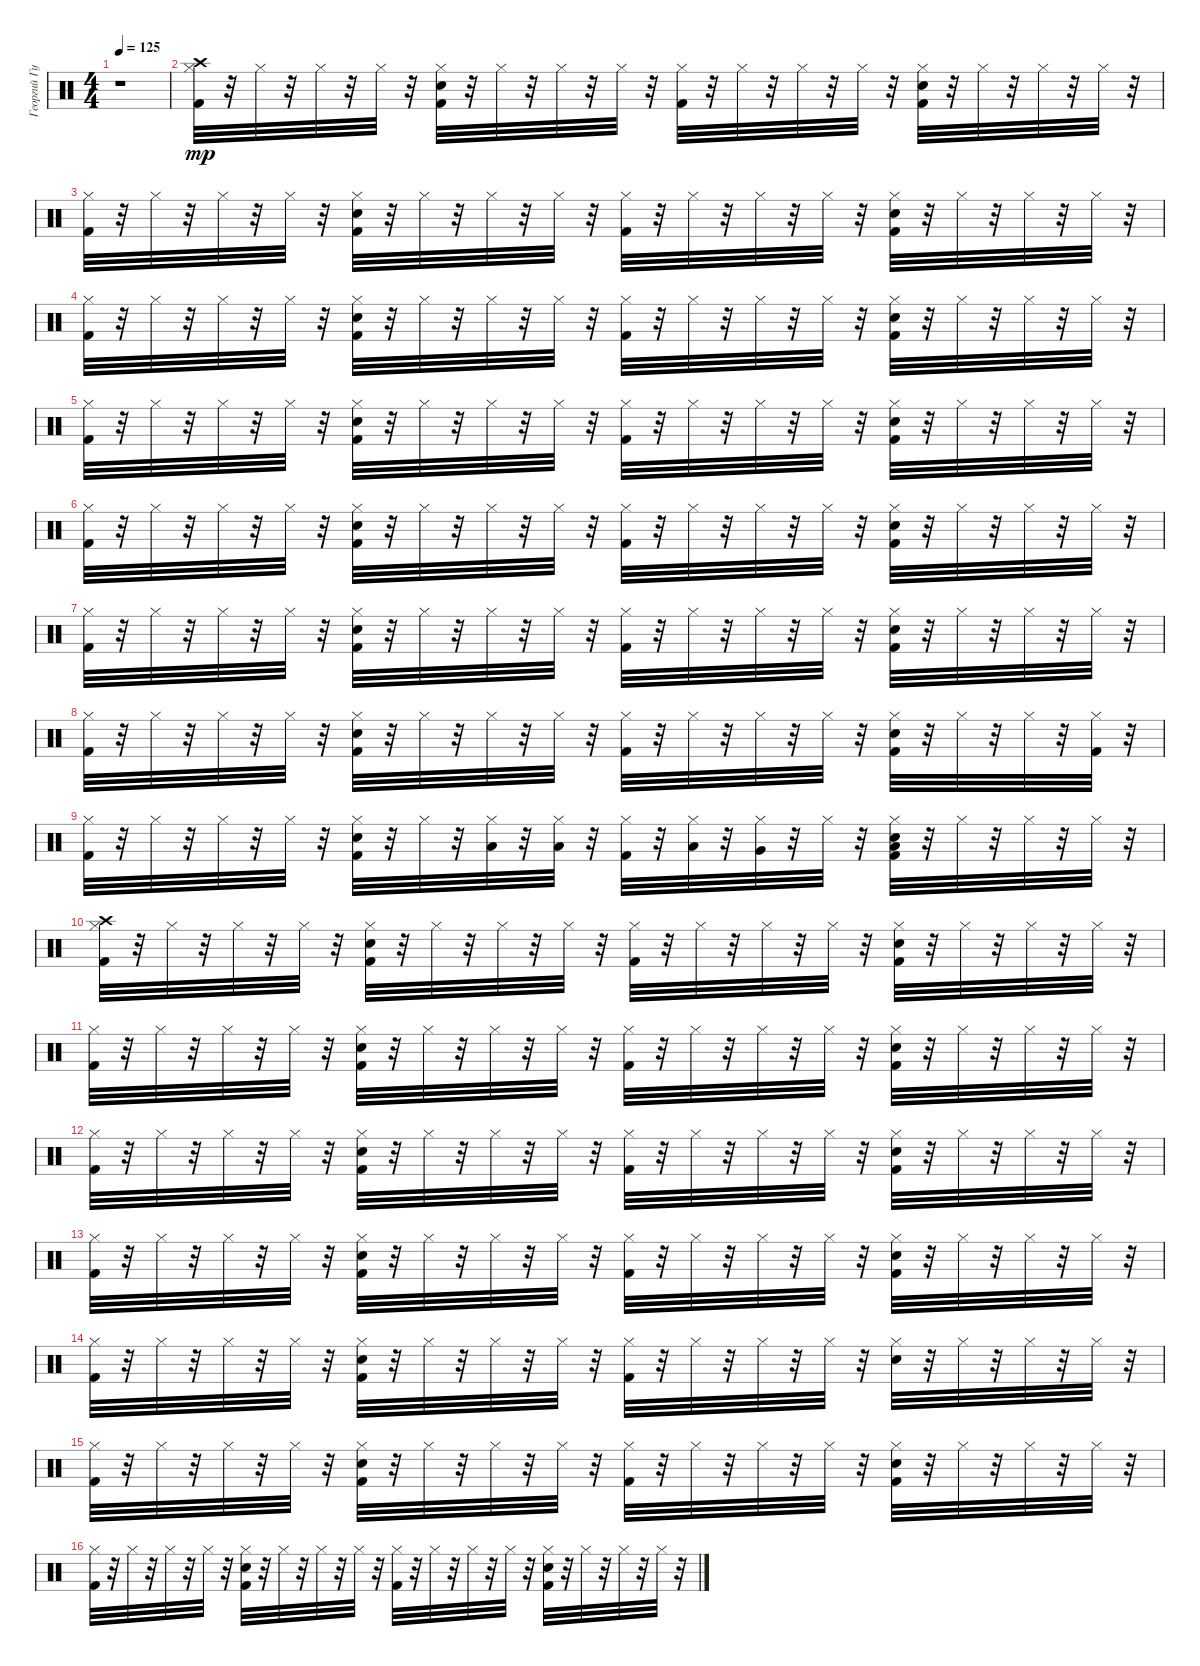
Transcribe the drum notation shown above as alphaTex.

\track ("Георгий Гурьянов" "Георгий Гу") {instrument percussion}
\staff {score}
\articulation defaults
\ts (4 4)
\tempo 125
\clef neutral
\ks c
r.1{dy mp} |
("Hi-Hat (closed)" "Kick (hit) 2" "Crash high (hit)").32 r.32 "Hi-Hat (closed)".32 r.32 "Hi-Hat (closed)".32 r.32 "Hi-Hat (closed)".32 r.32 ("Kick (hit) 2" "Hi-Hat (closed)" "Snare (hit) 2").32 r.32 "Hi-Hat (closed)".32 r.32 "Hi-Hat (closed)".32 r.32 "Hi-Hat (closed)".32 r.32 ("Hi-Hat (closed)" "Kick (hit) 2").32 r.32 "Hi-Hat (closed)".32 r.32 "Hi-Hat (closed)".32 r.32 "Hi-Hat (closed)".32 r.32 ("Kick (hit) 2" "Hi-Hat (closed)" "Snare (hit) 2").32 r.32 "Hi-Hat (closed)".32 r.32 "Hi-Hat (closed)".32 r.32 "Hi-Hat (closed)".32 r.32 |
("Kick (hit) 2" "Hi-Hat (closed)").32 r.32 "Hi-Hat (closed)".32 r.32 "Hi-Hat (closed)".32 r.32 "Hi-Hat (closed)".32 r.32 ("Kick (hit) 2" "Snare (hit) 2" "Hi-Hat (closed)").32 r.32 "Hi-Hat (closed)".32 r.32 "Hi-Hat (closed)".32 r.32 "Hi-Hat (closed)".32 r.32 ("Kick (hit) 2" "Hi-Hat (closed)").32 r.32 "Hi-Hat (closed)".32 r.32 "Hi-Hat (closed)".32 r.32 "Hi-Hat (closed)".32 r.32 ("Kick (hit) 2" "Snare (hit) 2" "Hi-Hat (closed)").32 r.32 "Hi-Hat (closed)".32 r.32 "Hi-Hat (closed)".32 r.32 "Hi-Hat (closed)".32 r.32 |
("Kick (hit) 2" "Hi-Hat (closed)").32 r.32 "Hi-Hat (closed)".32 r.32 "Hi-Hat (closed)".32 r.32 "Hi-Hat (closed)".32 r.32 ("Kick (hit) 2" "Snare (hit) 2" "Hi-Hat (closed)").32 r.32 "Hi-Hat (closed)".32 r.32 "Hi-Hat (closed)".32 r.32 "Hi-Hat (closed)".32 r.32 ("Kick (hit) 2" "Hi-Hat (closed)").32 r.32 "Hi-Hat (closed)".32 r.32 "Hi-Hat (closed)".32 r.32 "Hi-Hat (closed)".32 r.32 ("Kick (hit) 2" "Snare (hit) 2" "Hi-Hat (closed)").32 r.32 "Hi-Hat (closed)".32 r.32 "Hi-Hat (closed)".32 r.32 "Hi-Hat (closed)".32 r.32 |
("Kick (hit) 2" "Hi-Hat (closed)").32 r.32 "Hi-Hat (closed)".32 r.32 "Hi-Hat (closed)".32 r.32 "Hi-Hat (closed)".32 r.32 ("Kick (hit) 2" "Snare (hit) 2" "Hi-Hat (closed)").32 r.32 "Hi-Hat (closed)".32 r.32 "Hi-Hat (closed)".32 r.32 "Hi-Hat (closed)".32 r.32 ("Kick (hit) 2" "Hi-Hat (closed)").32 r.32 "Hi-Hat (closed)".32 r.32 "Hi-Hat (closed)".32 r.32 "Hi-Hat (closed)".32 r.32 ("Kick (hit) 2" "Snare (hit) 2" "Hi-Hat (closed)").32 r.32 "Hi-Hat (closed)".32 r.32 "Hi-Hat (closed)".32 r.32 "Hi-Hat (closed)".32 r.32 |
("Kick (hit) 2" "Hi-Hat (closed)").32 r.32 "Hi-Hat (closed)".32 r.32 "Hi-Hat (closed)".32 r.32 "Hi-Hat (closed)".32 r.32 ("Kick (hit) 2" "Snare (hit) 2" "Hi-Hat (closed)").32 r.32 "Hi-Hat (closed)".32 r.32 "Hi-Hat (closed)".32 r.32 "Hi-Hat (closed)".32 r.32 ("Kick (hit) 2" "Hi-Hat (closed)").32 r.32 "Hi-Hat (closed)".32 r.32 "Hi-Hat (closed)".32 r.32 "Hi-Hat (closed)".32 r.32 ("Kick (hit) 2" "Snare (hit) 2" "Hi-Hat (closed)").32 r.32 "Hi-Hat (closed)".32 r.32 "Hi-Hat (closed)".32 r.32 "Hi-Hat (closed)".32 r.32 |
("Kick (hit) 2" "Hi-Hat (closed)").32 r.32 "Hi-Hat (closed)".32 r.32 "Hi-Hat (closed)".32 r.32 "Hi-Hat (closed)".32 r.32 ("Kick (hit) 2" "Snare (hit) 2" "Hi-Hat (closed)").32 r.32 "Hi-Hat (closed)".32 r.32 "Hi-Hat (closed)".32 r.32 "Hi-Hat (closed)".32 r.32 ("Kick (hit) 2" "Hi-Hat (closed)").32 r.32 "Hi-Hat (closed)".32 r.32 "Hi-Hat (closed)".32 r.32 "Hi-Hat (closed)".32 r.32 ("Kick (hit) 2" "Snare (hit) 2" "Hi-Hat (closed)").32 r.32 "Hi-Hat (closed)".32 r.32 "Hi-Hat (closed)".32 r.32 "Hi-Hat (closed)".32 r.32 |
("Kick (hit) 2" "Hi-Hat (closed)").32 r.32 "Hi-Hat (closed)".32 r.32 "Hi-Hat (closed)".32 r.32 "Hi-Hat (closed)".32 r.32 ("Kick (hit) 2" "Snare (hit) 2" "Hi-Hat (closed)").32 r.32 "Hi-Hat (closed)".32 r.32 "Hi-Hat (closed)".32 r.32 "Hi-Hat (closed)".32 r.32 ("Kick (hit) 2" "Hi-Hat (closed)").32 r.32 "Hi-Hat (closed)".32 r.32 "Hi-Hat (closed)".32 r.32 "Hi-Hat (closed)".32 r.32 ("Kick (hit) 2" "Snare (hit) 2" "Hi-Hat (closed)").32 r.32 "Hi-Hat (closed)".32 r.32 "Hi-Hat (closed)".32 r.32 ("Kick (hit) 2" "Hi-Hat (closed)").32 r.32 |
("Kick (hit) 2" "Hi-Hat (closed)").32 r.32 "Hi-Hat (closed)".32 r.32 "Hi-Hat (closed)".32 r.32 "Hi-Hat (closed)".32 r.32 ("Kick (hit) 2" "Snare (hit) 2" "Hi-Hat (closed)").32 r.32 "Hi-Hat (closed)".32 r.32 ("Low Tom (hit)" "Hi-Hat (closed)").32 r.32 ("Low Tom (hit)" "Hi-Hat (closed)").32 r.32 ("Kick (hit) 2" "Hi-Hat (closed)").32 r.32 ("Low Tom (hit)" "Hi-Hat (closed)").32 r.32 ("Very Low Tom (hit)" "Hi-Hat (closed)").32 r.32 "Hi-Hat (closed)".32 r.32 ("Kick (hit) 2" "Low Floor Tom (hit)" "Snare (hit) 2" "Hi-Hat (closed)").32 r.32 "Hi-Hat (closed)".32 r.32 "Hi-Hat (closed)".32 r.32 "Hi-Hat (closed)".32 r.32 |
("Hi-Hat (closed)" "Kick (hit) 2" "Crash high (hit)").32 r.32 "Hi-Hat (closed)".32 r.32 "Hi-Hat (closed)".32 r.32 "Hi-Hat (closed)".32 r.32 ("Kick (hit) 2" "Hi-Hat (closed)" "Snare (hit) 2").32 r.32 "Hi-Hat (closed)".32 r.32 "Hi-Hat (closed)".32 r.32 "Hi-Hat (closed)".32 r.32 ("Hi-Hat (closed)" "Kick (hit) 2").32 r.32 "Hi-Hat (closed)".32 r.32 "Hi-Hat (closed)".32 r.32 "Hi-Hat (closed)".32 r.32 ("Kick (hit) 2" "Hi-Hat (closed)" "Snare (hit) 2").32 r.32 "Hi-Hat (closed)".32 r.32 "Hi-Hat (closed)".32 r.32 "Hi-Hat (closed)".32 r.32 |
("Kick (hit) 2" "Hi-Hat (closed)").32 r.32 "Hi-Hat (closed)".32 r.32 "Hi-Hat (closed)".32 r.32 "Hi-Hat (closed)".32 r.32 ("Kick (hit) 2" "Snare (hit) 2" "Hi-Hat (closed)").32 r.32 "Hi-Hat (closed)".32 r.32 "Hi-Hat (closed)".32 r.32 "Hi-Hat (closed)".32 r.32 ("Kick (hit) 2" "Hi-Hat (closed)").32 r.32 "Hi-Hat (closed)".32 r.32 "Hi-Hat (closed)".32 r.32 "Hi-Hat (closed)".32 r.32 ("Kick (hit) 2" "Snare (hit) 2" "Hi-Hat (closed)").32 r.32 "Hi-Hat (closed)".32 r.32 "Hi-Hat (closed)".32 r.32 "Hi-Hat (closed)".32 r.32 |
("Kick (hit) 2" "Hi-Hat (closed)").32 r.32 "Hi-Hat (closed)".32 r.32 "Hi-Hat (closed)".32 r.32 "Hi-Hat (closed)".32 r.32 ("Kick (hit) 2" "Snare (hit) 2" "Hi-Hat (closed)").32 r.32 "Hi-Hat (closed)".32 r.32 "Hi-Hat (closed)".32 r.32 "Hi-Hat (closed)".32 r.32 ("Kick (hit) 2" "Hi-Hat (closed)").32 r.32 "Hi-Hat (closed)".32 r.32 "Hi-Hat (closed)".32 r.32 "Hi-Hat (closed)".32 r.32 ("Kick (hit) 2" "Snare (hit) 2" "Hi-Hat (closed)").32 r.32 "Hi-Hat (closed)".32 r.32 "Hi-Hat (closed)".32 r.32 "Hi-Hat (closed)".32 r.32 |
("Kick (hit) 2" "Hi-Hat (closed)").32 r.32 "Hi-Hat (closed)".32 r.32 "Hi-Hat (closed)".32 r.32 "Hi-Hat (closed)".32 r.32 ("Kick (hit) 2" "Snare (hit) 2" "Hi-Hat (closed)").32 r.32 "Hi-Hat (closed)".32 r.32 "Hi-Hat (closed)".32 r.32 "Hi-Hat (closed)".32 r.32 ("Kick (hit) 2" "Hi-Hat (closed)").32 r.32 "Hi-Hat (closed)".32 r.32 "Hi-Hat (closed)".32 r.32 "Hi-Hat (closed)".32 r.32 ("Kick (hit) 2" "Snare (hit) 2" "Hi-Hat (closed)").32 r.32 "Hi-Hat (closed)".32 r.32 "Hi-Hat (closed)".32 r.32 "Hi-Hat (closed)".32 r.32 |
("Kick (hit) 2" "Hi-Hat (closed)").32 r.32 "Hi-Hat (closed)".32 r.32 "Hi-Hat (closed)".32 r.32 "Hi-Hat (closed)".32 r.32 ("Kick (hit) 2" "Snare (hit) 2" "Hi-Hat (closed)").32 r.32 "Hi-Hat (closed)".32 r.32 "Hi-Hat (closed)".32 r.32 "Hi-Hat (closed)".32 r.32 ("Kick (hit) 2" "Hi-Hat (closed)").32 r.32 "Hi-Hat (closed)".32 r.32 "Hi-Hat (closed)".32 r.32 "Hi-Hat (closed)".32 r.32 ("Snare (hit) 2" "Hi-Hat (closed)").32 r.32 "Hi-Hat (closed)".32 r.32 "Hi-Hat (closed)".32 r.32 "Hi-Hat (closed)".32 r.32 |
("Kick (hit) 2" "Hi-Hat (closed)").32 r.32 "Hi-Hat (closed)".32 r.32 "Hi-Hat (closed)".32 r.32 "Hi-Hat (closed)".32 r.32 ("Kick (hit) 2" "Snare (hit) 2" "Hi-Hat (closed)").32 r.32 "Hi-Hat (closed)".32 r.32 "Hi-Hat (closed)".32 r.32 "Hi-Hat (closed)".32 r.32 ("Kick (hit) 2" "Hi-Hat (closed)").32 r.32 "Hi-Hat (closed)".32 r.32 "Hi-Hat (closed)".32 r.32 "Hi-Hat (closed)".32 r.32 ("Kick (hit) 2" "Snare (hit) 2" "Hi-Hat (closed)").32 r.32 "Hi-Hat (closed)".32 r.32 "Hi-Hat (closed)".32 r.32 "Hi-Hat (closed)".32 r.32 |
("Kick (hit) 2" "Hi-Hat (closed)").32 r.32 "Hi-Hat (closed)".32 r.32 "Hi-Hat (closed)".32 r.32 "Hi-Hat (closed)".32 r.32 ("Kick (hit) 2" "Snare (hit) 2" "Hi-Hat (closed)").32 r.32 "Hi-Hat (closed)".32 r.32 "Hi-Hat (closed)".32 r.32 "Hi-Hat (closed)".32 r.32 ("Kick (hit) 2" "Hi-Hat (closed)").32 r.32 "Hi-Hat (closed)".32 r.32 "Hi-Hat (closed)".32 r.32 "Hi-Hat (closed)".32 r.32 ("Kick (hit) 2" "Snare (hit) 2" "Hi-Hat (closed)").32 r.32 "Hi-Hat (closed)".32 r.32 "Hi-Hat (closed)".32 r.32 "Hi-Hat (closed)".32 r.32
